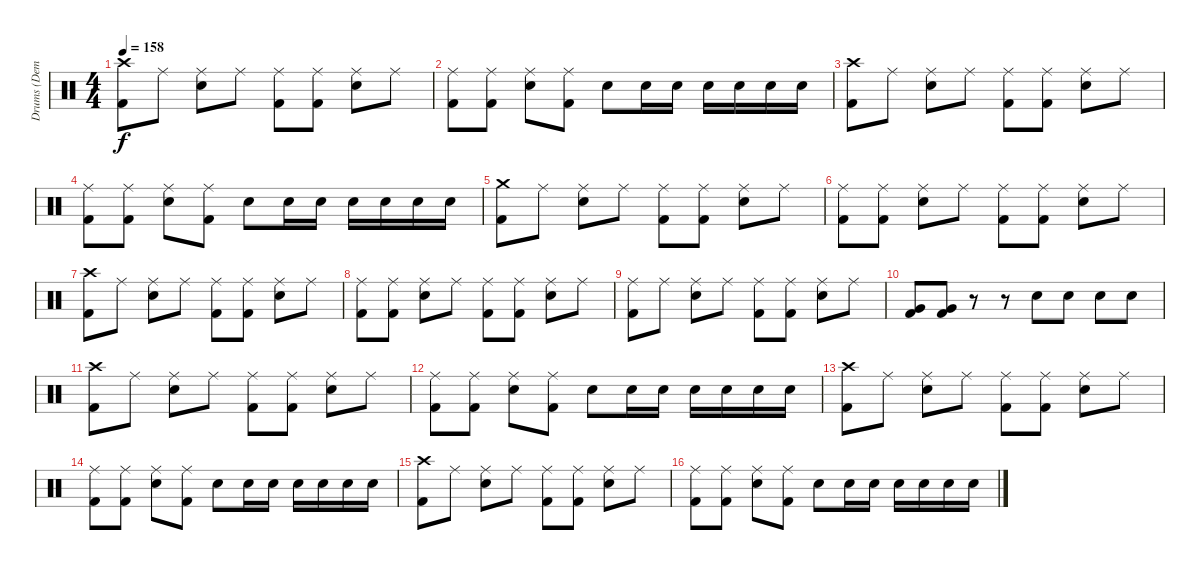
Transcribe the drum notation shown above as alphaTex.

\track ("Drums (Demetra)" "Drums (Dem") {instrument percussion}
\staff {score}
\articulation defaults
\ts (4 4)
\tempo 158
\clef neutral
\ks c
("Crash high (hit)" "Kick (hit) 2").8{dy f} "Ride (middle)".8 ("Ride (middle)" "Snare (hit) 2").8 "Ride (middle)".8 ("Ride (middle)" "Kick (hit) 2").8 ("Ride (middle)" "Kick (hit) 2").8 ("Ride (middle)" "Snare (hit) 2").8 "Ride (middle)".8 |
("Ride (middle)" "Kick (hit) 2").8 ("Ride (middle)" "Kick (hit) 2").8 ("Ride (middle)" "Snare (hit) 2").8 ("Ride (middle)" "Kick (hit) 2").8 "Snare (hit) 2".8 "Snare (hit) 2".16 "Snare (hit) 2".16 "Snare (hit) 2".16 "Snare (hit) 2".16 "Snare (hit) 2".16 "Snare (hit) 2".16 |
("Crash high (hit)" "Kick (hit) 2").8 "Ride (middle)".8 ("Ride (middle)" "Snare (hit) 2").8 "Ride (middle)".8 ("Ride (middle)" "Kick (hit) 2").8 ("Ride (middle)" "Kick (hit) 2").8 ("Ride (middle)" "Snare (hit) 2").8 "Ride (middle)".8 |
("Ride (middle)" "Kick (hit) 2").8 ("Ride (middle)" "Kick (hit) 2").8 ("Ride (middle)" "Snare (hit) 2").8 ("Ride (middle)" "Kick (hit) 2").8 "Snare (hit) 2".8 "Snare (hit) 2".16 "Snare (hit) 2".16 "Snare (hit) 2".16 "Snare (hit) 2".16 "Snare (hit) 2".16 "Snare (hit) 2".16 |
("Crash medium (hit)" "Kick (hit) 2").8 "Ride (middle)".8 ("Ride (middle)" "Snare (hit) 2").8 "Ride (middle)".8 ("Ride (middle)" "Kick (hit) 2").8 ("Ride (middle)" "Kick (hit) 2").8 ("Ride (middle)" "Snare (hit) 2").8 "Ride (middle)".8 |
("Ride (middle)" "Kick (hit) 2").8 ("Ride (middle)" "Kick (hit) 2").8 ("Ride (middle)" "Snare (hit) 2").8 "Ride (middle)".8 ("Ride (middle)" "Kick (hit) 2").8 ("Ride (middle)" "Kick (hit) 2").8 ("Ride (middle)" "Snare (hit) 2").8 "Ride (middle)".8 |
("Crash high (hit)" "Kick (hit) 2").8 "Ride (middle)".8 ("Ride (middle)" "Snare (hit) 2").8 "Ride (middle)".8 ("Ride (middle)" "Kick (hit) 2").8 ("Ride (middle)" "Kick (hit) 2").8 ("Ride (middle)" "Snare (hit) 2").8 "Ride (middle)".8 |
("Ride (middle)" "Kick (hit) 2").8 ("Ride (middle)" "Kick (hit) 2").8 ("Ride (middle)" "Snare (hit) 2").8 "Ride (middle)".8 ("Ride (middle)" "Kick (hit) 2").8 ("Ride (middle)" "Kick (hit) 2").8 ("Ride (middle)" "Snare (hit) 2").8 "Ride (middle)".8 |
("Ride (middle)" "Kick (hit) 2").8 "Ride (middle)".8 ("Ride (middle)" "Snare (hit) 2").8 "Ride (middle)".8 ("Ride (middle)" "Kick (hit) 2").8 ("Ride (middle)" "Kick (hit) 2").8 ("Ride (middle)" "Snare (hit) 2").8 "Ride (middle)".8 |
("Very Low Tom (hit)" "Kick (hit) 2").8 ("Very Low Tom (hit)" "Kick (hit) 2").8 r.8 r.8 "Snare (hit) 2".8 "Snare (hit) 2".8 "Snare (hit) 2".8 "Snare (hit) 2".8 |
("Crash high (hit)" "Kick (hit) 2").8 "Ride (middle)".8 ("Ride (middle)" "Snare (hit) 2").8 "Ride (middle)".8 ("Ride (middle)" "Kick (hit) 2").8 ("Ride (middle)" "Kick (hit) 2").8 ("Ride (middle)" "Snare (hit) 2").8 "Ride (middle)".8 |
("Ride (middle)" "Kick (hit) 2").8 ("Ride (middle)" "Kick (hit) 2").8 ("Ride (middle)" "Snare (hit) 2").8 ("Ride (middle)" "Kick (hit) 2").8 "Snare (hit) 2".8 "Snare (hit) 2".16 "Snare (hit) 2".16 "Snare (hit) 2".16 "Snare (hit) 2".16 "Snare (hit) 2".16 "Snare (hit) 2".16 |
("Crash high (hit)" "Kick (hit) 2").8 "Ride (middle)".8 ("Ride (middle)" "Snare (hit) 2").8 "Ride (middle)".8 ("Ride (middle)" "Kick (hit) 2").8 ("Ride (middle)" "Kick (hit) 2").8 ("Ride (middle)" "Snare (hit) 2").8 "Ride (middle)".8 |
("Ride (middle)" "Kick (hit) 2").8 ("Ride (middle)" "Kick (hit) 2").8 ("Ride (middle)" "Snare (hit) 2").8 ("Ride (middle)" "Kick (hit) 2").8 "Snare (hit) 2".8 "Snare (hit) 2".16 "Snare (hit) 2".16 "Snare (hit) 2".16 "Snare (hit) 2".16 "Snare (hit) 2".16 "Snare (hit) 2".16 |
("Crash high (hit)" "Kick (hit) 2").8 "Ride (middle)".8 ("Ride (middle)" "Snare (hit) 2").8 "Ride (middle)".8 ("Ride (middle)" "Kick (hit) 2").8 ("Ride (middle)" "Kick (hit) 2").8 ("Ride (middle)" "Snare (hit) 2").8 "Ride (middle)".8 |
("Ride (middle)" "Kick (hit) 2").8 ("Ride (middle)" "Kick (hit) 2").8 ("Ride (middle)" "Snare (hit) 2").8 ("Ride (middle)" "Kick (hit) 2").8 "Snare (hit) 2".8 "Snare (hit) 2".16 "Snare (hit) 2".16 "Snare (hit) 2".16 "Snare (hit) 2".16 "Snare (hit) 2".16 "Snare (hit) 2".16
